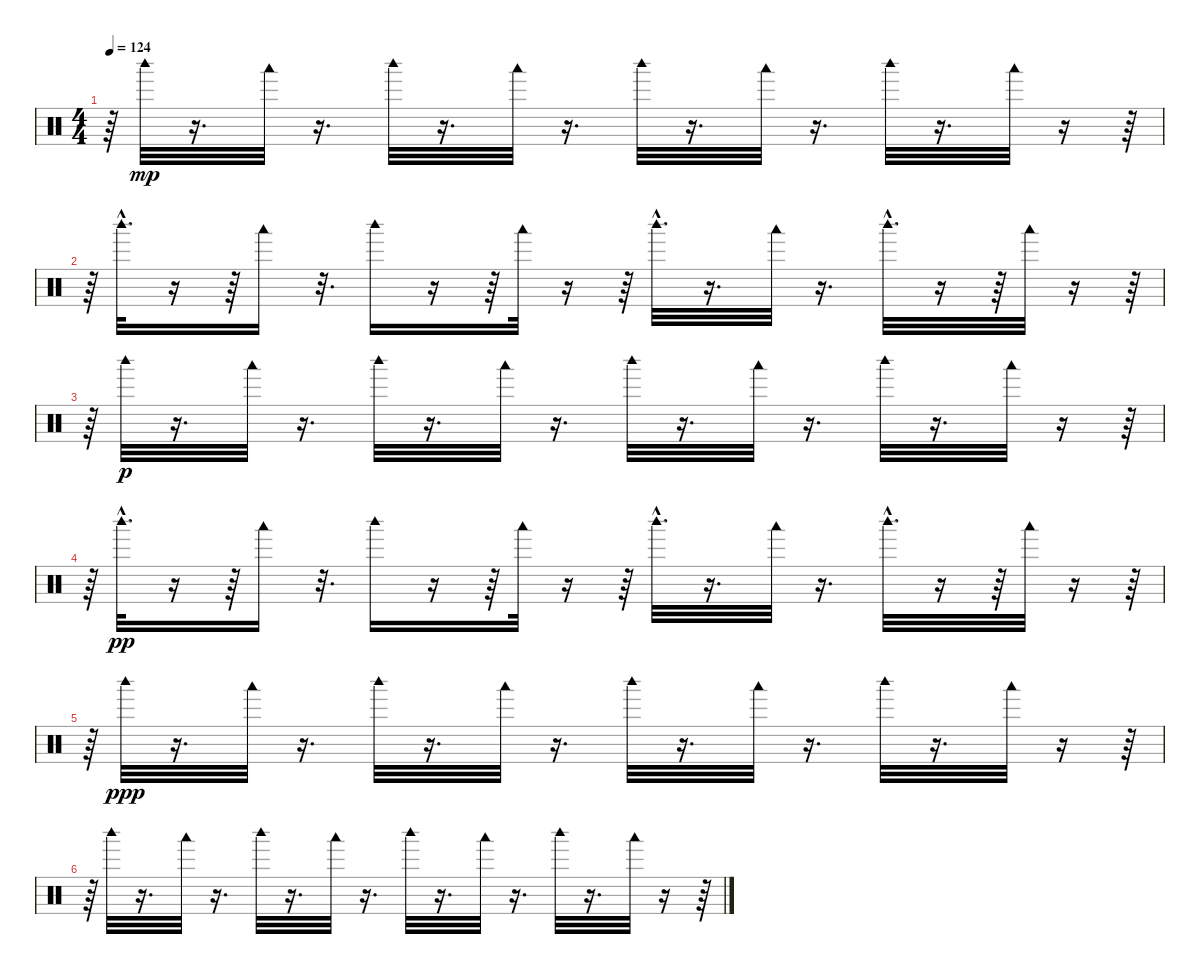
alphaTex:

\track "" {instrument percussion}
\staff {score}
\articulation defaults
\ts (4 4)
\tempo 124
\clef neutral
\ks c
r.64{dy mp} "Woodblock high (hit)".32 r.16{d} "Woodblock low (hit)".32 r.16{d} "Woodblock high (hit)".32 r.16{d} "Woodblock low (hit)".32 r.16{d} "Woodblock high (hit)".32 r.16{d} "Woodblock low (hit)".32 r.16{d} "Woodblock high (hit)".32 r.16{d} "Woodblock low (hit)".32 r.16 r.64 |
r.64 "Woodblock high (hit)"{hac}.32{d} r.16 r.64 "Woodblock low (hit)".16 r.32{d} "Woodblock high (hit)".16 r.16 r.64 "Woodblock low (hit)".32 r.16 r.64 "Woodblock high (hit)"{hac}.32{d} r.16{d} "Woodblock low (hit)".32 r.16{d} "Woodblock high (hit)"{hac}.32{d} r.16 r.64 "Woodblock low (hit)".32 r.16 r.64 |
r.64 "Woodblock high (hit)".32{dy p} r.16{d} "Woodblock low (hit)".32 r.16{d} "Woodblock high (hit)".32 r.16{d} "Woodblock low (hit)".32 r.16{d} "Woodblock high (hit)".32 r.16{d} "Woodblock low (hit)".32 r.16{d} "Woodblock high (hit)".32 r.16{d} "Woodblock low (hit)".32 r.16 r.64 |
r.64 "Woodblock high (hit)"{hac}.32{d dy pp} r.16 r.64 "Woodblock low (hit)".16 r.32{d} "Woodblock high (hit)".16 r.16 r.64 "Woodblock low (hit)".32 r.16 r.64 "Woodblock high (hit)"{hac}.32{d} r.16{d} "Woodblock low (hit)".32 r.16{d} "Woodblock high (hit)"{hac}.32{d} r.16 r.64 "Woodblock low (hit)".32 r.16 r.64 |
r.64 "Woodblock high (hit)".32{dy ppp} r.16{d} "Woodblock low (hit)".32 r.16{d} "Woodblock high (hit)".32 r.16{d} "Woodblock low (hit)".32 r.16{d} "Woodblock high (hit)".32 r.16{d} "Woodblock low (hit)".32 r.16{d} "Woodblock high (hit)".32 r.16{d} "Woodblock low (hit)".32 r.16 r.64 |
r.64 "Woodblock high (hit)".32 r.16{d} "Woodblock low (hit)".32 r.16{d} "Woodblock high (hit)".32 r.16{d} "Woodblock low (hit)".32 r.16{d} "Woodblock high (hit)".32 r.16{d} "Woodblock low (hit)".32 r.16{d} "Woodblock high (hit)".32 r.16{d} "Woodblock low (hit)".32 r.16 r.64
